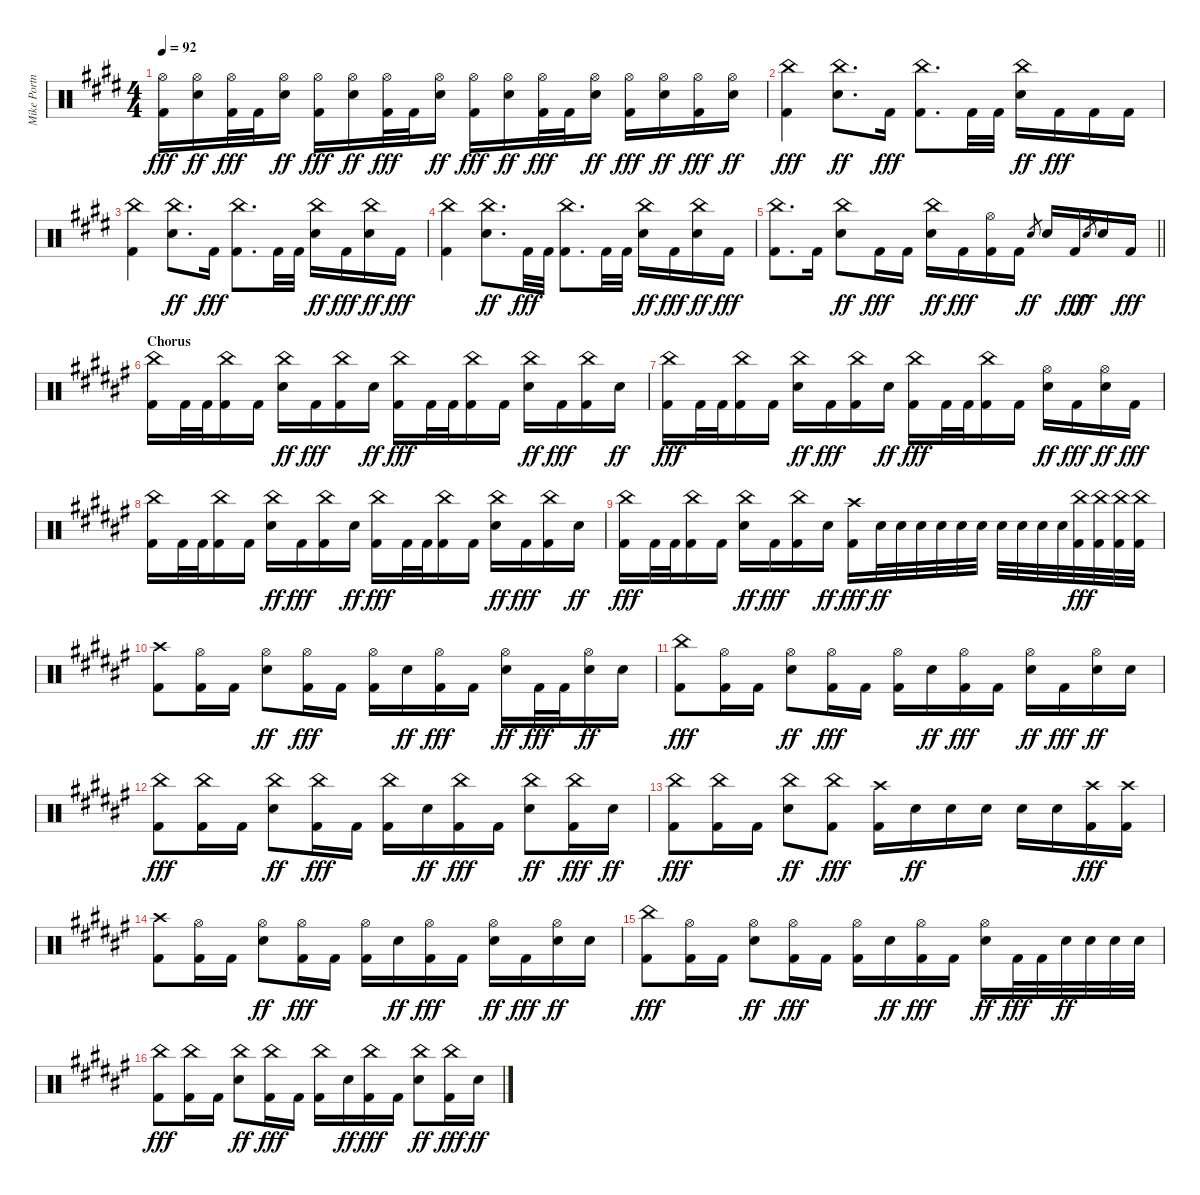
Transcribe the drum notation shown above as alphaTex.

\track ("Mike Portnoy" "Mike Portn") {instrument percussion}
\staff {score}
\articulation defaults
\ts (4 4)
\tempo 92
\clef neutral
\ks e
("Hi-Hat (open)" "Kick (hit) 2").16{dy fff} ("Hi-Hat (open)" "Electric Snare (hit)").16{dy ff} ("Hi-Hat (open)" "Kick (hit) 2").32{dy fff} "Kick (hit) 2".32 ("Hi-Hat (open)" "Electric Snare (hit)").16{dy ff} ("Hi-Hat (open)" "Kick (hit) 2").16{dy fff} ("Hi-Hat (open)" "Electric Snare (hit)").16{dy ff} ("Hi-Hat (open)" "Kick (hit) 2").32{dy fff} "Kick (hit) 2".32 ("Hi-Hat (open)" "Electric Snare (hit)").16{dy ff} ("Hi-Hat (open)" "Kick (hit) 2").16{dy fff} ("Hi-Hat (open)" "Electric Snare (hit)").16{dy ff} ("Hi-Hat (open)" "Kick (hit) 2").32{dy fff} "Kick (hit) 2".32 ("Hi-Hat (open)" "Electric Snare (hit)").16{dy ff} ("Hi-Hat (open)" "Kick (hit) 2").16{dy fff} ("Hi-Hat (open)" "Electric Snare (hit)").16{dy ff} ("Hi-Hat (open)" "Kick (hit) 2").16{dy fff} ("Hi-Hat (open)" "Electric Snare (hit)").16{dy ff} |
("China (hit)" "Kick (hit) 2").4{dy fff} ("China (hit)" "Electric Snare (hit)").8{d dy ff} "Kick (hit) 2".16{dy fff} ("China (hit)" "Kick (hit) 2").8{d} "Kick (hit) 2".32 "Kick (hit) 2".32 ("China (hit)" "Electric Snare (hit)").16{dy ff} "Kick (hit) 2".16{dy fff} "Kick (hit) 2".16 "Kick (hit) 2".16 |
("China (hit)" "Kick (hit) 2").4 ("China (hit)" "Electric Snare (hit)").8{d dy ff} "Kick (hit) 2".16{dy fff} ("China (hit)" "Kick (hit) 2").8{d} "Kick (hit) 2".32 "Kick (hit) 2".32 ("China (hit)" "Electric Snare (hit)").16{dy ff} "Kick (hit) 2".16{dy fff} ("China (hit)" "Electric Snare (hit)").16{dy ff} "Kick (hit) 2".16{dy fff} |
("China (hit)" "Kick (hit) 2").4 ("China (hit)" "Electric Snare (hit)").8{d dy ff} "Kick (hit) 2".32{dy fff} "Kick (hit) 2".32 ("China (hit)" "Kick (hit) 2").8{d} "Kick (hit) 2".32 "Kick (hit) 2".32 ("China (hit)" "Electric Snare (hit)").16{dy ff} "Kick (hit) 2".16{dy fff} ("China (hit)" "Electric Snare (hit)").16{dy ff} "Kick (hit) 2".16{dy fff} |
\barLineRight lightlight
("China (hit)" "Kick (hit) 2").8{d} "Kick (hit) 2".16 ("China (hit)" "Electric Snare (hit)").8{dy ff} "Kick (hit) 2".16{dy fff} "Kick (hit) 2".16 ("China (hit)" "Electric Snare (hit)").16{dy ff} "Kick (hit) 2".16{dy fff} ("Hi-Hat (open)" "Kick (hit) 2").16 "Kick (hit) 2".16 "Electric Snare (hit)".8{gr dy ff} "Electric Snare (hit)".16 "Kick (hit) 2".16{dy fff} "Electric Snare (hit)".8{gr dy ff} "Electric Snare (hit)".16 "Kick (hit) 2".16{dy fff} |
\section ("" "Chorus")
\ks f#
("China (hit)" "Kick (hit) 2").16 "Kick (hit) 2".32 "Kick (hit) 2".32 ("China (hit)" "Kick (hit) 2").16 "Kick (hit) 2".16 ("China (hit)" "Electric Snare (hit)").16{dy ff} "Kick (hit) 2".16{dy fff} ("China (hit)" "Kick (hit) 2").16 "Electric Snare (hit)".16{dy ff} ("China (hit)" "Kick (hit) 2").16{dy fff} "Kick (hit) 2".32 "Kick (hit) 2".32 ("China (hit)" "Kick (hit) 2").16 "Kick (hit) 2".16 ("China (hit)" "Electric Snare (hit)").16{dy ff} "Kick (hit) 2".16{dy fff} ("China (hit)" "Kick (hit) 2").16 "Electric Snare (hit)".16{dy ff} |
("China (hit)" "Kick (hit) 2").16{dy fff} "Kick (hit) 2".32 "Kick (hit) 2".32 ("China (hit)" "Kick (hit) 2").16 "Kick (hit) 2".16 ("China (hit)" "Electric Snare (hit)").16{dy ff} "Kick (hit) 2".16{dy fff} ("China (hit)" "Kick (hit) 2").16 "Electric Snare (hit)".16{dy ff} ("China (hit)" "Kick (hit) 2").16{dy fff} "Kick (hit) 2".32 "Kick (hit) 2".32 ("China (hit)" "Kick (hit) 2").16 "Kick (hit) 2".16 ("Hi-Hat (open)" "Electric Snare (hit)").16{dy ff} "Kick (hit) 2".16{dy fff} ("Hi-Hat (open)" "Electric Snare (hit)").16{dy ff} "Kick (hit) 2".16{dy fff} |
("China (hit)" "Kick (hit) 2").16 "Kick (hit) 2".32 "Kick (hit) 2".32 ("China (hit)" "Kick (hit) 2").16 "Kick (hit) 2".16 ("China (hit)" "Electric Snare (hit)").16{dy ff} "Kick (hit) 2".16{dy fff} ("China (hit)" "Kick (hit) 2").16 "Electric Snare (hit)".16{dy ff} ("China (hit)" "Kick (hit) 2").16{dy fff} "Kick (hit) 2".32 "Kick (hit) 2".32 ("China (hit)" "Kick (hit) 2").16 "Kick (hit) 2".16 ("China (hit)" "Electric Snare (hit)").16{dy ff} "Kick (hit) 2".16{dy fff} ("China (hit)" "Kick (hit) 2").16 "Electric Snare (hit)".16{dy ff} |
("China (hit)" "Kick (hit) 2").16{dy fff} "Kick (hit) 2".32 "Kick (hit) 2".32 ("China (hit)" "Kick (hit) 2").16 "Kick (hit) 2".16 ("China (hit)" "Electric Snare (hit)").16{dy ff} "Kick (hit) 2".16{dy fff} ("China (hit)" "Kick (hit) 2").16 "Electric Snare (hit)".16{dy ff} ("Crash high (hit)" "Kick (hit) 2").16{dy fff} "Electric Snare (hit)".32{dy ff} "Electric Snare (hit)".32 "Electric Snare (hit)".32 "Electric Snare (hit)".32 "Electric Snare (hit)".32 "Electric Snare (hit)".32 "Electric Snare (hit)".32 "Electric Snare (hit)".32 "Electric Snare (hit)".32 "Electric Snare (hit)".32 ("China (hit)" "Kick (hit) 2").32{dy fff} ("China (hit)" "Kick (hit) 2").32 ("China (hit)" "Kick (hit) 2").32 ("China (hit)" "Kick (hit) 2").32 |
("Crash high (hit)" "Kick (hit) 2").8 ("Hi-Hat (open)" "Kick (hit) 2").16 "Kick (hit) 2".16 ("Hi-Hat (open)" "Electric Snare (hit)").8{dy ff} ("Hi-Hat (open)" "Kick (hit) 2").16{dy fff} "Kick (hit) 2".16 ("Hi-Hat (open)" "Kick (hit) 2").16 "Electric Snare (hit)".16{dy ff} ("Hi-Hat (open)" "Kick (hit) 2").16{dy fff} "Kick (hit) 2".16 ("Hi-Hat (open)" "Electric Snare (hit)").16{dy ff} "Kick (hit) 2".32{dy fff} "Kick (hit) 2".32 ("Hi-Hat (open)" "Electric Snare (hit)").16{dy ff} "Electric Snare (hit)".16 |
("China (hit)" "Kick (hit) 2").8{dy fff} ("Hi-Hat (open)" "Kick (hit) 2").16 "Kick (hit) 2".16 ("Hi-Hat (open)" "Electric Snare (hit)").8{dy ff} ("Hi-Hat (open)" "Kick (hit) 2").16{dy fff} "Kick (hit) 2".16 ("Hi-Hat (open)" "Kick (hit) 2").16 "Electric Snare (hit)".16{dy ff} ("Hi-Hat (open)" "Kick (hit) 2").16{dy fff} "Kick (hit) 2".16 ("Hi-Hat (open)" "Electric Snare (hit)").16{dy ff} "Kick (hit) 2".16{dy fff} ("Hi-Hat (open)" "Electric Snare (hit)").16{dy ff} "Electric Snare (hit)".16 |
("China (hit)" "Kick (hit) 2").8{dy fff} ("China (hit)" "Kick (hit) 2").16 "Kick (hit) 2".16 ("China (hit)" "Electric Snare (hit)").8{dy ff} ("China (hit)" "Kick (hit) 2").16{dy fff} "Kick (hit) 2".16 ("China (hit)" "Kick (hit) 2").16 "Electric Snare (hit)".16{dy ff} ("China (hit)" "Kick (hit) 2").16{dy fff} "Kick (hit) 2".16 ("China (hit)" "Electric Snare (hit)").8{dy ff} ("China (hit)" "Kick (hit) 2").16{dy fff} "Electric Snare (hit)".16{dy ff} |
("China (hit)" "Kick (hit) 2").8{dy fff} ("China (hit)" "Kick (hit) 2").16 "Kick (hit) 2".16 ("China (hit)" "Electric Snare (hit)").8{dy ff} ("China (hit)" "Kick (hit) 2").8{dy fff} ("Crash high (hit)" "Kick (hit) 2").16 "Electric Snare (hit)".16{dy ff} "Electric Snare (hit)".16 "Electric Snare (hit)".16 "Electric Snare (hit)".16 "Electric Snare (hit)".16 ("Crash high (hit)" "Kick (hit) 2").16{dy fff} ("Crash high (hit)" "Kick (hit) 2").16 |
("Crash high (hit)" "Kick (hit) 2").8 ("Hi-Hat (open)" "Kick (hit) 2").16 "Kick (hit) 2".16 ("Hi-Hat (open)" "Electric Snare (hit)").8{dy ff} ("Hi-Hat (open)" "Kick (hit) 2").16{dy fff} "Kick (hit) 2".16 ("Hi-Hat (open)" "Kick (hit) 2").16 "Electric Snare (hit)".16{dy ff} ("Hi-Hat (open)" "Kick (hit) 2").16{dy fff} "Kick (hit) 2".16 ("Hi-Hat (open)" "Electric Snare (hit)").16{dy ff} "Kick (hit) 2".16{dy fff} ("Hi-Hat (open)" "Electric Snare (hit)").16{dy ff} "Electric Snare (hit)".16 |
("China (hit)" "Kick (hit) 2").8{dy fff} ("Hi-Hat (open)" "Kick (hit) 2").16 "Kick (hit) 2".16 ("Hi-Hat (open)" "Electric Snare (hit)").8{dy ff} ("Hi-Hat (open)" "Kick (hit) 2").16{dy fff} "Kick (hit) 2".16 ("Hi-Hat (open)" "Kick (hit) 2").16 "Electric Snare (hit)".16{dy ff} ("Hi-Hat (open)" "Kick (hit) 2").16{dy fff} "Kick (hit) 2".16 ("Hi-Hat (open)" "Electric Snare (hit)").16{dy ff} "Kick (hit) 2".32{dy fff} "Kick (hit) 2".32 "Electric Snare (hit)".32{dy ff} "Electric Snare (hit)".32 "Electric Snare (hit)".32 "Electric Snare (hit)".32 |
("China (hit)" "Kick (hit) 2").8{dy fff} ("China (hit)" "Kick (hit) 2").16 "Kick (hit) 2".16 ("China (hit)" "Electric Snare (hit)").8{dy ff} ("China (hit)" "Kick (hit) 2").16{dy fff} "Kick (hit) 2".16 ("China (hit)" "Kick (hit) 2").16 "Electric Snare (hit)".16{dy ff} ("China (hit)" "Kick (hit) 2").16{dy fff} "Kick (hit) 2".16 ("China (hit)" "Electric Snare (hit)").8{dy ff} ("China (hit)" "Kick (hit) 2").16{dy fff} "Electric Snare (hit)".16{dy ff}
